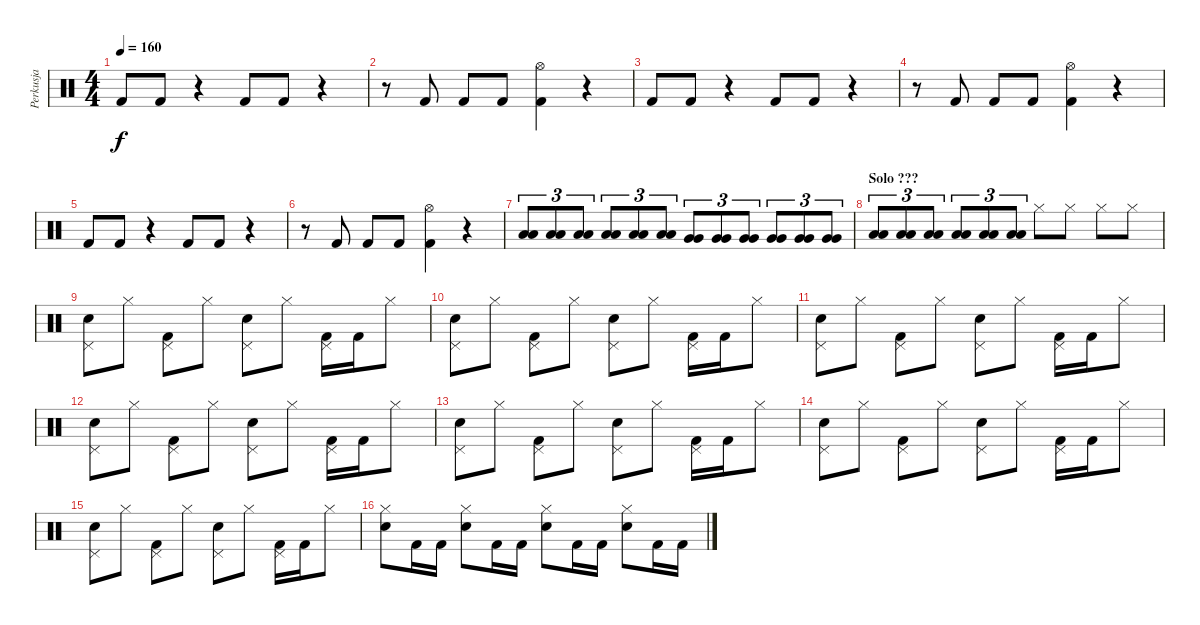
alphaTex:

\track ("Perkusja" "Perkusja") {instrument percussion}
\staff {score}
\articulation defaults
\ts (4 4)
\tempo 160
\clef neutral
\ks c "Kick (hit) 2".8{dy f} "Kick (hit) 2".8
r.4 "Kick (hit) 2".8 "Kick (hit) 2".8 r.4 |
r.8 "Kick (hit) 2".8 "Kick (hit) 2".8 "Kick (hit) 2".8 ("Kick (hit) 2" "Hi-Hat (open)").4 r.4 |
"Kick (hit) 2".8 "Kick (hit) 2".8 r.4 "Kick (hit) 2".8 "Kick (hit) 2".8 r.4 |
r.8 "Kick (hit) 2".8 "Kick (hit) 2".8 "Kick (hit) 2".8 ("Kick (hit) 2" "Hi-Hat (open)").4 r.4 |
"Kick (hit) 2".8 "Kick (hit) 2".8 r.4 "Kick (hit) 2".8 "Kick (hit) 2".8 r.4 |
r.8 "Kick (hit) 2".8 "Kick (hit) 2".8 "Kick (hit) 2".8 ("Kick (hit) 2" "Hi-Hat (open)").4 r.4 |
("Low Floor Tom (hit)" "Low Floor Tom (hit)").8{tu (3 2)} ("Low Floor Tom (hit)" "Low Floor Tom (hit)").8{tu (3 2)} ("Low Floor Tom (hit)" "Low Floor Tom (hit)").8{tu (3 2)} ("Low Floor Tom (hit)" "Low Floor Tom (hit)").8{tu (3 2)} ("Low Floor Tom (hit)" "Low Floor Tom (hit)").8{tu (3 2)} ("Low Floor Tom (hit)" "Low Floor Tom (hit)").8{tu (3 2)} ("Very Low Tom (hit)" "Very Low Tom (hit)").8{tu (3 2)} ("Very Low Tom (hit)" "Very Low Tom (hit)").8{tu (3 2)} ("Very Low Tom (hit)" "Very Low Tom (hit)").8{tu (3 2)} ("Very Low Tom (hit)" "Very Low Tom (hit)").8{tu (3 2)} ("Very Low Tom (hit)" "Very Low Tom (hit)").8{tu (3 2)} ("Very Low Tom (hit)" "Very Low Tom (hit)").8{tu (3 2)} |
\section ("" "Solo ???")
("Low Tom (hit)" "Low Tom (hit)").8{tu (3 2)} ("Low Tom (hit)" "Low Tom (hit)").8{tu (3 2)} ("Low Tom (hit)" "Low Tom (hit)").8{tu (3 2)} ("Low Tom (hit)" "Low Tom (hit)").8{tu (3 2)} ("Low Tom (hit)" "Low Tom (hit)").8{tu (3 2)} ("Low Tom (hit)" "Low Tom (hit)").8{tu (3 2)} "Hi-Hat (closed)".8 "Hi-Hat (closed)".8 "Hi-Hat (closed)".8 "Hi-Hat (closed)".8 |
("Snare (hit) 2" "Pedal Hi-Hat (hit)").8 "Hi-Hat (closed)".8 ("Kick (hit) 2" "Pedal Hi-Hat (hit)").8 "Hi-Hat (closed)".8 ("Snare (hit) 2" "Pedal Hi-Hat (hit)").8 "Hi-Hat (closed)".8 ("Kick (hit) 2" "Pedal Hi-Hat (hit)").16 "Kick (hit) 2".16 "Hi-Hat (closed)".8 |
("Snare (hit) 2" "Pedal Hi-Hat (hit)").8 "Hi-Hat (closed)".8 ("Kick (hit) 2" "Pedal Hi-Hat (hit)").8 "Hi-Hat (closed)".8 ("Snare (hit) 2" "Pedal Hi-Hat (hit)").8 "Hi-Hat (closed)".8 ("Kick (hit) 2" "Pedal Hi-Hat (hit)").16 "Kick (hit) 2".16 "Hi-Hat (closed)".8 |
("Snare (hit) 2" "Pedal Hi-Hat (hit)").8 "Hi-Hat (closed)".8 ("Kick (hit) 2" "Pedal Hi-Hat (hit)").8 "Hi-Hat (closed)".8 ("Snare (hit) 2" "Pedal Hi-Hat (hit)").8 "Hi-Hat (closed)".8 ("Kick (hit) 2" "Pedal Hi-Hat (hit)").16 "Kick (hit) 2".16 "Hi-Hat (closed)".8 |
("Snare (hit) 2" "Pedal Hi-Hat (hit)").8 "Hi-Hat (closed)".8 ("Kick (hit) 2" "Pedal Hi-Hat (hit)").8 "Hi-Hat (closed)".8 ("Snare (hit) 2" "Pedal Hi-Hat (hit)").8 "Hi-Hat (closed)".8 ("Kick (hit) 2" "Pedal Hi-Hat (hit)").16 "Kick (hit) 2".16 "Hi-Hat (closed)".8 |
("Snare (hit) 2" "Pedal Hi-Hat (hit)").8 "Hi-Hat (closed)".8 ("Kick (hit) 2" "Pedal Hi-Hat (hit)").8 "Hi-Hat (closed)".8 ("Snare (hit) 2" "Pedal Hi-Hat (hit)").8 "Hi-Hat (closed)".8 ("Kick (hit) 2" "Pedal Hi-Hat (hit)").16 "Kick (hit) 2".16 "Hi-Hat (closed)".8 |
("Snare (hit) 2" "Pedal Hi-Hat (hit)").8 "Hi-Hat (closed)".8 ("Kick (hit) 2" "Pedal Hi-Hat (hit)").8 "Hi-Hat (closed)".8 ("Snare (hit) 2" "Pedal Hi-Hat (hit)").8 "Hi-Hat (closed)".8 ("Kick (hit) 2" "Pedal Hi-Hat (hit)").16 "Kick (hit) 2".16 "Hi-Hat (closed)".8 |
("Snare (hit) 2" "Pedal Hi-Hat (hit)").8 "Hi-Hat (closed)".8 ("Kick (hit) 2" "Pedal Hi-Hat (hit)").8 "Hi-Hat (closed)".8 ("Snare (hit) 2" "Pedal Hi-Hat (hit)").8 "Hi-Hat (closed)".8 ("Kick (hit) 2" "Pedal Hi-Hat (hit)").16 "Kick (hit) 2".16 "Hi-Hat (closed)".8 |
("Snare (hit) 2" "Hi-Hat (closed)").8 "Kick (hit) 2".16 "Kick (hit) 2".16 ("Snare (hit) 2" "Hi-Hat (closed)").8 "Kick (hit) 2".16 "Kick (hit) 2".16 ("Snare (hit) 2" "Hi-Hat (closed)").8 "Kick (hit) 2".16 "Kick (hit) 2".16 ("Snare (hit) 2" "Hi-Hat (closed)").8 "Kick (hit) 2".16 "Kick (hit) 2".16
